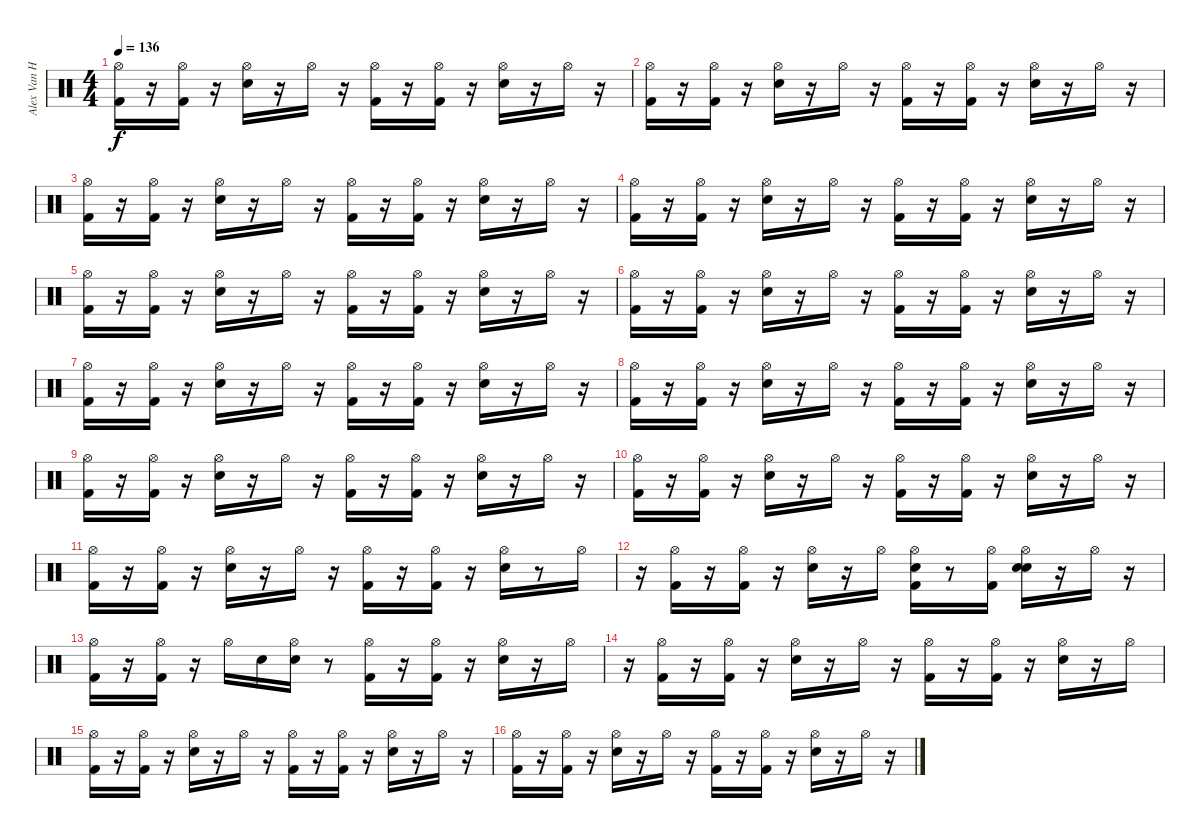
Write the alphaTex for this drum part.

\track ("Alex Van Halen (Drums)" "Alex Van H") {instrument percussion}
\staff {score}
\articulation defaults
\ts (4 4)
\tempo 136
\clef neutral
\ks c
("Hi-Hat (open)" "Kick (hit) 2").16{dy f} r.16 ("Hi-Hat (open)" "Kick (hit) 2").16 r.16 ("Hi-Hat (open)" "Snare (hit) 2").16 r.16 "Hi-Hat (open)".16 r.16 ("Hi-Hat (open)" "Kick (hit) 2").16 r.16 ("Hi-Hat (open)" "Kick (hit) 2").16 r.16 ("Hi-Hat (open)" "Snare (hit) 2").16 r.16 "Hi-Hat (open)".16 r.16 |
("Hi-Hat (open)" "Kick (hit) 2").16 r.16 ("Hi-Hat (open)" "Kick (hit) 2").16 r.16 ("Hi-Hat (open)" "Snare (hit) 2").16 r.16 "Hi-Hat (open)".16 r.16 ("Hi-Hat (open)" "Kick (hit) 2").16 r.16 ("Hi-Hat (open)" "Kick (hit) 2").16 r.16 ("Hi-Hat (open)" "Snare (hit) 2").16 r.16 "Hi-Hat (open)".16 r.16 |
("Hi-Hat (open)" "Kick (hit) 2").16 r.16 ("Hi-Hat (open)" "Kick (hit) 2").16 r.16 ("Hi-Hat (open)" "Snare (hit) 2").16 r.16 "Hi-Hat (open)".16 r.16 ("Hi-Hat (open)" "Kick (hit) 2").16 r.16 ("Hi-Hat (open)" "Kick (hit) 2").16 r.16 ("Hi-Hat (open)" "Snare (hit) 2").16 r.16 "Hi-Hat (open)".16 r.16 |
("Hi-Hat (open)" "Kick (hit) 2").16 r.16 ("Hi-Hat (open)" "Kick (hit) 2").16 r.16 ("Hi-Hat (open)" "Snare (hit) 2").16 r.16 "Hi-Hat (open)".16 r.16 ("Hi-Hat (open)" "Kick (hit) 2").16 r.16 ("Hi-Hat (open)" "Kick (hit) 2").16 r.16 ("Hi-Hat (open)" "Snare (hit) 2").16 r.16 "Hi-Hat (open)".16 r.16 |
("Hi-Hat (open)" "Kick (hit) 2").16 r.16 ("Hi-Hat (open)" "Kick (hit) 2").16 r.16 ("Hi-Hat (open)" "Snare (hit) 2").16 r.16 "Hi-Hat (open)".16 r.16 ("Hi-Hat (open)" "Kick (hit) 2").16 r.16 ("Hi-Hat (open)" "Kick (hit) 2").16 r.16 ("Hi-Hat (open)" "Snare (hit) 2").16 r.16 "Hi-Hat (open)".16 r.16 |
("Hi-Hat (open)" "Kick (hit) 2").16 r.16 ("Hi-Hat (open)" "Kick (hit) 2").16 r.16 ("Hi-Hat (open)" "Snare (hit) 2").16 r.16 "Hi-Hat (open)".16 r.16 ("Hi-Hat (open)" "Kick (hit) 2").16 r.16 ("Hi-Hat (open)" "Kick (hit) 2").16 r.16 ("Hi-Hat (open)" "Snare (hit) 2").16 r.16 "Hi-Hat (open)".16 r.16 |
("Hi-Hat (open)" "Kick (hit) 2").16 r.16 ("Hi-Hat (open)" "Kick (hit) 2").16 r.16 ("Hi-Hat (open)" "Snare (hit) 2").16 r.16 "Hi-Hat (open)".16 r.16 ("Hi-Hat (open)" "Kick (hit) 2").16 r.16 ("Hi-Hat (open)" "Kick (hit) 2").16 r.16 ("Hi-Hat (open)" "Snare (hit) 2").16 r.16 "Hi-Hat (open)".16 r.16 |
("Hi-Hat (open)" "Kick (hit) 2").16 r.16 ("Hi-Hat (open)" "Kick (hit) 2").16 r.16 ("Hi-Hat (open)" "Snare (hit) 2").16 r.16 "Hi-Hat (open)".16 r.16 ("Hi-Hat (open)" "Kick (hit) 2").16 r.16 ("Hi-Hat (open)" "Kick (hit) 2").16 r.16 ("Hi-Hat (open)" "Snare (hit) 2").16 r.16 "Hi-Hat (open)".16 r.16 |
("Hi-Hat (open)" "Kick (hit) 2").16 r.16 ("Hi-Hat (open)" "Kick (hit) 2").16 r.16 ("Hi-Hat (open)" "Snare (hit) 2").16 r.16 "Hi-Hat (open)".16 r.16 ("Hi-Hat (open)" "Kick (hit) 2").16 r.16 ("Hi-Hat (open)" "Kick (hit) 2").16 r.16 ("Hi-Hat (open)" "Snare (hit) 2").16 r.16 "Hi-Hat (open)".16 r.16 |
("Hi-Hat (open)" "Kick (hit) 2").16 r.16 ("Hi-Hat (open)" "Kick (hit) 2").16 r.16 ("Hi-Hat (open)" "Snare (hit) 2").16 r.16 "Hi-Hat (open)".16 r.16 ("Hi-Hat (open)" "Kick (hit) 2").16 r.16 ("Hi-Hat (open)" "Kick (hit) 2").16 r.16 ("Hi-Hat (open)" "Snare (hit) 2").16 r.16 "Hi-Hat (open)".16 r.16 |
("Hi-Hat (open)" "Kick (hit) 2").16 r.16 ("Hi-Hat (open)" "Kick (hit) 2").16 r.16 ("Hi-Hat (open)" "Snare (hit) 2").16 r.16 "Hi-Hat (open)".16 r.16 ("Hi-Hat (open)" "Kick (hit) 2").16 r.16 ("Hi-Hat (open)" "Kick (hit) 2").16 r.16 ("Hi-Hat (open)" "Snare (hit) 2").16 r.8 "Hi-Hat (open)".16 |
r.16 ("Hi-Hat (open)" "Kick (hit) 2").16 r.16 ("Hi-Hat (open)" "Kick (hit) 2").16 r.16 ("Hi-Hat (open)" "Snare (hit) 2").16 r.16 "Hi-Hat (open)".16 ("Snare (hit)" "Hi-Hat (open)" "Kick (hit) 2").16 r.8 ("Hi-Hat (open)" "Kick (hit) 2").16 ("Snare (hit)" "Hi-Hat (open)" "Snare (hit) 2").16 r.16 "Hi-Hat (open)".16 r.16 |
("Hi-Hat (open)" "Kick (hit) 2").16 r.16 ("Hi-Hat (open)" "Kick (hit) 2").16 r.16 "Hi-Hat (open)".16 "Snare (hit) 2".16 ("Snare (hit)" "Hi-Hat (open)").16 r.8 ("Hi-Hat (open)" "Kick (hit) 2").16 r.16 ("Hi-Hat (open)" "Kick (hit) 2").16 r.16 ("Hi-Hat (open)" "Snare (hit) 2").16 r.16 "Hi-Hat (open)".16 |
r.16 ("Hi-Hat (open)" "Kick (hit) 2").16 r.16 ("Hi-Hat (open)" "Kick (hit) 2").16 r.16 ("Hi-Hat (open)" "Snare (hit) 2").16 r.16 "Hi-Hat (open)".16 r.16 ("Hi-Hat (open)" "Kick (hit) 2").16 r.16 ("Hi-Hat (open)" "Kick (hit) 2").16 r.16 ("Hi-Hat (open)" "Snare (hit) 2").16 r.16 "Hi-Hat (open)".16 |
("Hi-Hat (open)" "Kick (hit) 2").16 r.16 ("Hi-Hat (open)" "Kick (hit) 2").16 r.16 ("Hi-Hat (open)" "Snare (hit) 2").16 r.16 "Hi-Hat (open)".16 r.16 ("Hi-Hat (open)" "Kick (hit) 2").16 r.16 ("Hi-Hat (open)" "Kick (hit) 2").16 r.16 ("Hi-Hat (open)" "Snare (hit) 2").16 r.16 "Hi-Hat (open)".16 r.16 |
("Hi-Hat (open)" "Kick (hit) 2").16 r.16 ("Hi-Hat (open)" "Kick (hit) 2").16 r.16 ("Hi-Hat (open)" "Snare (hit) 2").16 r.16 "Hi-Hat (open)".16 r.16 ("Hi-Hat (open)" "Kick (hit) 2").16 r.16 ("Hi-Hat (open)" "Kick (hit) 2").16 r.16 ("Hi-Hat (open)" "Snare (hit) 2").16 r.16 "Hi-Hat (open)".16 r.16
